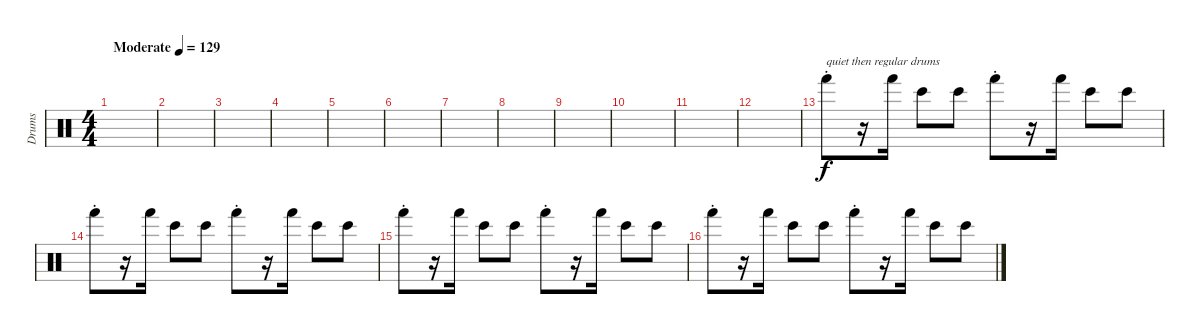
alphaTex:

\track ("Drums" "Drums") {instrument percussion}
\staff {score}
\articulation defaults
\ts (4 4)
\tempo (129 "Moderate")
\clef neutral
\ks c
|
|
|
|
|
|
|
|
|
|
|
|
"Hand (hit)"{st}.8{txt "quiet then regular drums" volume 12} r.16 "Hand (hit)".16 "Bongo High (hit)".8 "Bongo High (hit)".8 "Hand (hit)"{st}.8 r.16 "Hand (hit)".16 "Bongo High (hit)".8 "Bongo High (hit)".8 |
"Hand (hit)"{st}.8 r.16 "Hand (hit)".16 "Bongo High (hit)".8 "Bongo High (hit)".8 "Hand (hit)"{st}.8 r.16 "Hand (hit)".16 "Bongo High (hit)".8 "Bongo High (hit)".8 |
"Hand (hit)"{st}.8 r.16 "Hand (hit)".16 "Bongo High (hit)".8 "Bongo High (hit)".8 "Hand (hit)"{st}.8 r.16 "Hand (hit)".16 "Bongo High (hit)".8 "Bongo High (hit)".8 |
"Hand (hit)"{st}.8 r.16 "Hand (hit)".16 "Bongo High (hit)".8 "Bongo High (hit)".8 "Hand (hit)"{st}.8 r.16 "Hand (hit)".16 "Bongo High (hit)".8 "Bongo High (hit)".8
